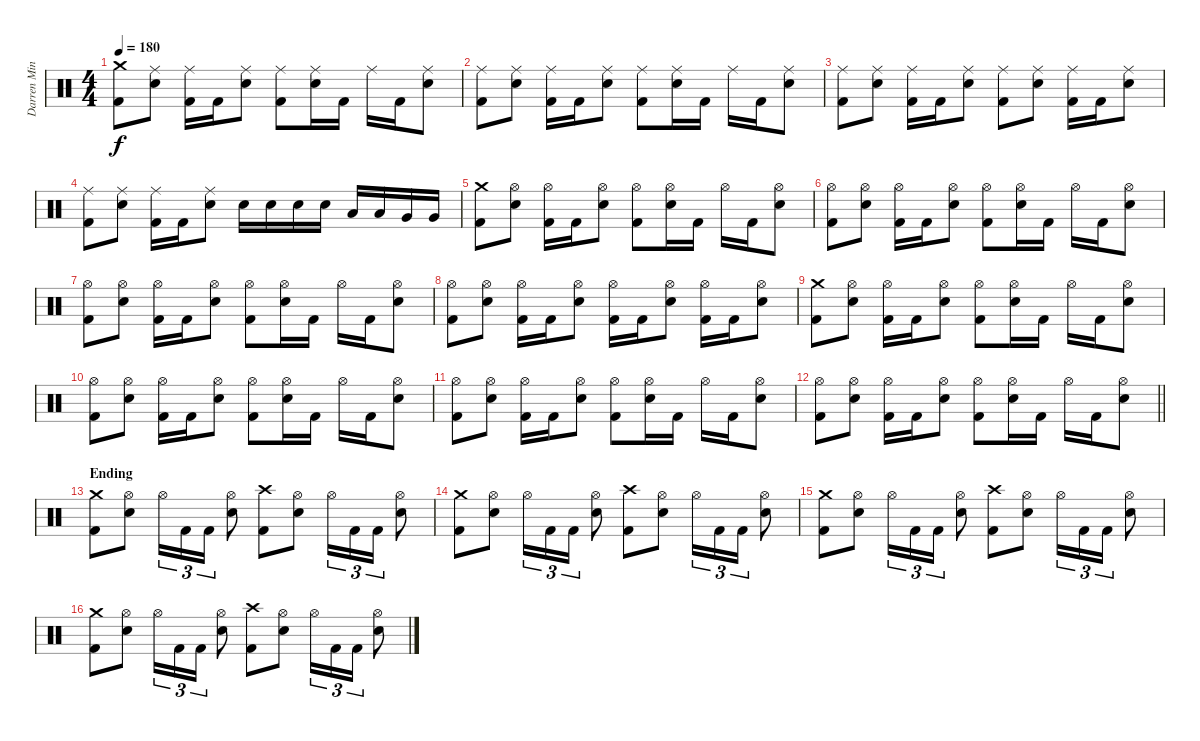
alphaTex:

\track ("Darren Minter" "Darren Min") {instrument percussion}
\staff {score}
\articulation defaults
\ts (4 4)
\tempo 180
\clef neutral
\ks c
("Crash medium (hit)" "Kick (hit) 2").8{dy f} ("Ride (middle)" "Electric Snare (hit)").8 ("Ride (middle)" "Kick (hit) 2").16 "Kick (hit) 2".16 ("Ride (middle)" "Electric Snare (hit)").8 ("Ride (middle)" "Kick (hit) 2").8 ("Ride (middle)" "Electric Snare (hit)").16 "Kick (hit) 2".16 "Ride (middle)".16 "Kick (hit) 2".16 ("Ride (middle)" "Electric Snare (hit)").8 |
("Ride (middle)" "Kick (hit) 2").8 ("Ride (middle)" "Electric Snare (hit)").8 ("Ride (middle)" "Kick (hit) 2").16 "Kick (hit) 2".16 ("Ride (middle)" "Electric Snare (hit)").8 ("Ride (middle)" "Kick (hit) 2").8 ("Ride (middle)" "Electric Snare (hit)").16 "Kick (hit) 2".16 "Ride (middle)".16 "Kick (hit) 2".16 ("Ride (middle)" "Electric Snare (hit)").8 |
("Ride (middle)" "Kick (hit) 2").8 ("Ride (middle)" "Electric Snare (hit)").8 ("Ride (middle)" "Kick (hit) 2").16 "Kick (hit) 2".16 ("Ride (middle)" "Electric Snare (hit)").8 ("Ride (middle)" "Kick (hit) 2").8 ("Ride (middle)" "Electric Snare (hit)").8 ("Ride (middle)" "Kick (hit) 2").16 "Kick (hit) 2".16 ("Ride (middle)" "Electric Snare (hit)").8 |
("Ride (middle)" "Kick (hit) 2").8 ("Ride (middle)" "Electric Snare (hit)").8 ("Ride (middle)" "Kick (hit) 2").16 "Kick (hit) 2".16 ("Ride (middle)" "Electric Snare (hit)").8 "Electric Snare (hit)".16 "Electric Snare (hit)".16 "Electric Snare (hit)".16 "Electric Snare (hit)".16 "Low Tom (hit)".16 "Low Tom (hit)".16 "Very Low Tom (hit)".16 "Very Low Tom (hit)".16 |
("Crash medium (hit)" "Kick (hit) 2").8 ("Hi-Hat (open)" "Electric Snare (hit)").8 ("Hi-Hat (open)" "Kick (hit) 2").16 "Kick (hit) 2".16 ("Hi-Hat (open)" "Electric Snare (hit)").8 ("Hi-Hat (open)" "Kick (hit) 2").8 ("Hi-Hat (open)" "Electric Snare (hit)").16 "Kick (hit) 2".16 "Hi-Hat (open)".16 "Kick (hit) 2".16 ("Hi-Hat (open)" "Electric Snare (hit)").8 |
("Hi-Hat (open)" "Kick (hit) 2").8 ("Hi-Hat (open)" "Electric Snare (hit)").8 ("Hi-Hat (open)" "Kick (hit) 2").16 "Kick (hit) 2".16 ("Hi-Hat (open)" "Electric Snare (hit)").8 ("Hi-Hat (open)" "Kick (hit) 2").8 ("Hi-Hat (open)" "Electric Snare (hit)").16 "Kick (hit) 2".16 "Hi-Hat (open)".16 "Kick (hit) 2".16 ("Hi-Hat (open)" "Electric Snare (hit)").8 |
("Hi-Hat (open)" "Kick (hit) 2").8 ("Hi-Hat (open)" "Electric Snare (hit)").8 ("Hi-Hat (open)" "Kick (hit) 2").16 "Kick (hit) 2".16 ("Hi-Hat (open)" "Electric Snare (hit)").8 ("Hi-Hat (open)" "Kick (hit) 2").8 ("Hi-Hat (open)" "Electric Snare (hit)").16 "Kick (hit) 2".16 "Hi-Hat (open)".16 "Kick (hit) 2".16 ("Hi-Hat (open)" "Electric Snare (hit)").8 |
("Hi-Hat (open)" "Kick (hit) 2").8 ("Hi-Hat (open)" "Electric Snare (hit)").8 ("Hi-Hat (open)" "Kick (hit) 2").16 "Kick (hit) 2".16 ("Hi-Hat (open)" "Electric Snare (hit)").8 ("Hi-Hat (open)" "Kick (hit) 2").16 "Kick (hit) 2".16 ("Hi-Hat (open)" "Electric Snare (hit)").8 ("Hi-Hat (open)" "Kick (hit) 2").16 "Kick (hit) 2".16 ("Hi-Hat (open)" "Electric Snare (hit)").8 |
("Crash medium (hit)" "Kick (hit) 2").8 ("Hi-Hat (open)" "Electric Snare (hit)").8 ("Hi-Hat (open)" "Kick (hit) 2").16 "Kick (hit) 2".16 ("Hi-Hat (open)" "Electric Snare (hit)").8 ("Hi-Hat (open)" "Kick (hit) 2").8 ("Hi-Hat (open)" "Electric Snare (hit)").16 "Kick (hit) 2".16 "Hi-Hat (open)".16 "Kick (hit) 2".16 ("Hi-Hat (open)" "Electric Snare (hit)").8 |
("Hi-Hat (open)" "Kick (hit) 2").8 ("Hi-Hat (open)" "Electric Snare (hit)").8 ("Hi-Hat (open)" "Kick (hit) 2").16 "Kick (hit) 2".16 ("Hi-Hat (open)" "Electric Snare (hit)").8 ("Hi-Hat (open)" "Kick (hit) 2").8 ("Hi-Hat (open)" "Electric Snare (hit)").16 "Kick (hit) 2".16 "Hi-Hat (open)".16 "Kick (hit) 2".16 ("Hi-Hat (open)" "Electric Snare (hit)").8 |
("Hi-Hat (open)" "Kick (hit) 2").8 ("Hi-Hat (open)" "Electric Snare (hit)").8 ("Hi-Hat (open)" "Kick (hit) 2").16 "Kick (hit) 2".16 ("Hi-Hat (open)" "Electric Snare (hit)").8 ("Hi-Hat (open)" "Kick (hit) 2").8 ("Hi-Hat (open)" "Electric Snare (hit)").16 "Kick (hit) 2".16 "Hi-Hat (open)".16 "Kick (hit) 2".16 ("Hi-Hat (open)" "Electric Snare (hit)").8 |
\barLineRight lightlight
("Hi-Hat (open)" "Kick (hit) 2").8 ("Hi-Hat (open)" "Electric Snare (hit)").8 ("Hi-Hat (open)" "Kick (hit) 2").16 "Kick (hit) 2".16 ("Hi-Hat (open)" "Electric Snare (hit)").8 ("Hi-Hat (open)" "Kick (hit) 2").8 ("Hi-Hat (open)" "Electric Snare (hit)").16 "Kick (hit) 2".16 "Hi-Hat (open)".16 "Kick (hit) 2".16 ("Hi-Hat (open)" "Electric Snare (hit)").8 |
\section ("" "Ending")
("Crash medium (hit)" "Kick (hit) 2").8 ("Hi-Hat (open)" "Electric Snare (hit)").8 "Hi-Hat (open)".16{tu (3 2)} "Kick (hit) 2".16{tu (3 2)} "Kick (hit) 2".16{tu (3 2)} ("Hi-Hat (open)" "Electric Snare (hit)").8 ("Crash high (hit)" "Kick (hit) 2").8 ("Hi-Hat (open)" "Electric Snare (hit)").8 "Hi-Hat (open)".16{tu (3 2)} "Kick (hit) 2".16{tu (3 2)} "Kick (hit) 2".16{tu (3 2)} ("Hi-Hat (open)" "Electric Snare (hit)").8 |
("Crash medium (hit)" "Kick (hit) 2").8 ("Hi-Hat (open)" "Electric Snare (hit)").8 "Hi-Hat (open)".16{tu (3 2)} "Kick (hit) 2".16{tu (3 2)} "Kick (hit) 2".16{tu (3 2)} ("Hi-Hat (open)" "Electric Snare (hit)").8 ("Crash high (hit)" "Kick (hit) 2").8 ("Hi-Hat (open)" "Electric Snare (hit)").8 "Hi-Hat (open)".16{tu (3 2)} "Kick (hit) 2".16{tu (3 2)} "Kick (hit) 2".16{tu (3 2)} ("Hi-Hat (open)" "Electric Snare (hit)").8 |
("Crash medium (hit)" "Kick (hit) 2").8 ("Hi-Hat (open)" "Electric Snare (hit)").8 "Hi-Hat (open)".16{tu (3 2)} "Kick (hit) 2".16{tu (3 2)} "Kick (hit) 2".16{tu (3 2)} ("Hi-Hat (open)" "Electric Snare (hit)").8 ("Crash high (hit)" "Kick (hit) 2").8 ("Hi-Hat (open)" "Electric Snare (hit)").8 "Hi-Hat (open)".16{tu (3 2)} "Kick (hit) 2".16{tu (3 2)} "Kick (hit) 2".16{tu (3 2)} ("Hi-Hat (open)" "Electric Snare (hit)").8 |
("Crash medium (hit)" "Kick (hit) 2").8 ("Hi-Hat (open)" "Electric Snare (hit)").8 "Hi-Hat (open)".16{tu (3 2)} "Kick (hit) 2".16{tu (3 2)} "Kick (hit) 2".16{tu (3 2)} ("Hi-Hat (open)" "Electric Snare (hit)").8 ("Crash high (hit)" "Kick (hit) 2").8 ("Hi-Hat (open)" "Electric Snare (hit)").8 "Hi-Hat (open)".16{tu (3 2)} "Kick (hit) 2".16{tu (3 2)} "Kick (hit) 2".16{tu (3 2)} ("Hi-Hat (open)" "Electric Snare (hit)").8
